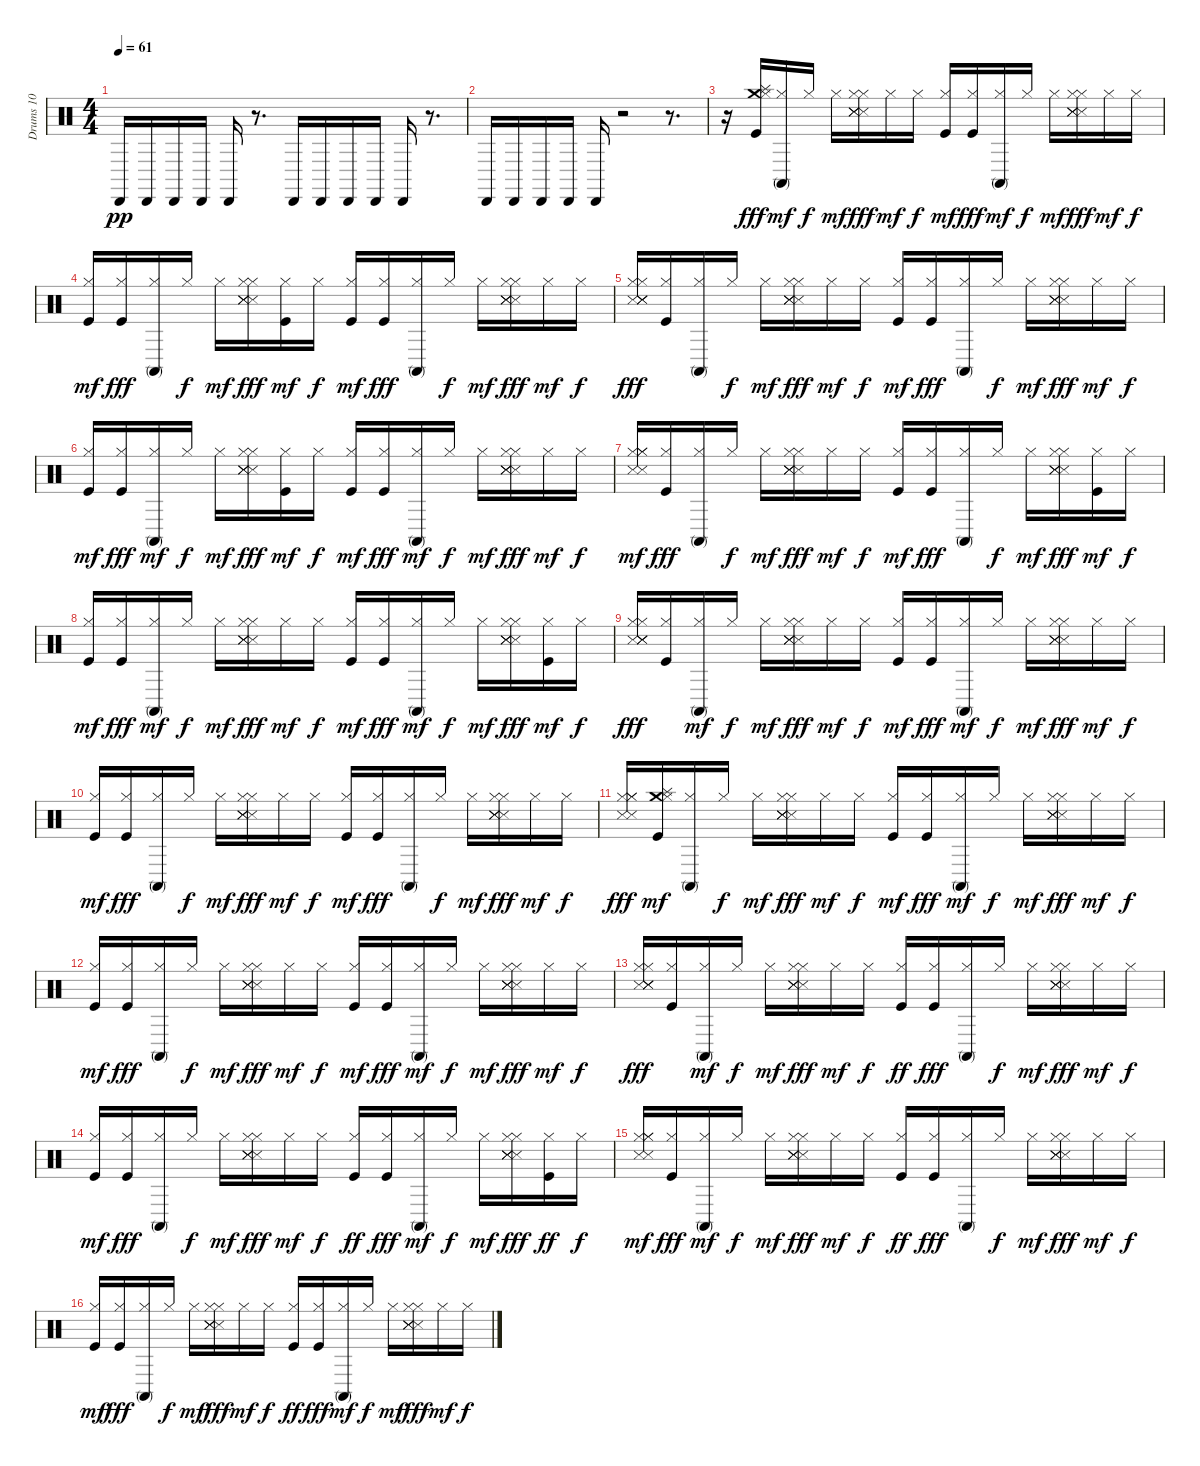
\track ("Drums 10" "Drums 10") {instrument percussion}
\staff {score}
\articulation defaults
\ts (4 4)
\tempo 61
\clef neutral
\ks c "Cabasa (hit)".16{dy pp} "Cabasa (hit)".16 "Cabasa (hit)".16 "Cabasa (hit)".16 "Cabasa (hit)".16
r.8{d} "Cabasa (hit)".16 "Cabasa (hit)".16 "Cabasa (hit)".16 "Cabasa (hit)".16 "Cabasa (hit)".16 r.8{d} |
"Cabasa (hit)".16 "Cabasa (hit)".16 "Cabasa (hit)".16 "Cabasa (hit)".16 "Cabasa (hit)".16 r.2 r.8{d} |
r.16 ("Splash (hit)" "Crash medium (hit)" "Hi-Hat (closed)" "Kick (hit)").16{dy fff volume 12} ("Conga high (mute)" "Hi-Hat (closed)").16{dy mf volume 12} "Hi-Hat (closed)".16{dy f} "Hi-Hat (closed)".16{dy mf} ("Snare (side stick) 3" "Snare (side stick) 3" "Snare (side stick) 3" "Snare (side stick) 3" "Hi-Hat (closed)" "Hi-Hat (closed)").16{dy fff} "Hi-Hat (closed)".16{dy mf} "Hi-Hat (closed)".16{dy f volume 12} ("Kick (hit)" "Hi-Hat (closed)").16{dy mf volume 12} ("Kick (hit)" "Hi-Hat (closed)").16{dy fff volume 12} ("Conga high (mute)" "Hi-Hat (closed)").16{dy mf} "Hi-Hat (closed)".16{dy f} "Hi-Hat (closed)".16{dy mf volume 12} ("Snare (side stick) 3" "Snare (side stick) 3" "Snare (side stick) 3" "Snare (side stick) 3" "Hi-Hat (closed)" "Hi-Hat (closed)").16{dy fff} "Hi-Hat (closed)".16{dy mf} "Hi-Hat (closed)".16{dy f} |
("Kick (hit)" "Hi-Hat (closed)").16{dy mf} ("Hi-Hat (closed)" "Kick (hit)").16{dy fff} ("Hi-Hat (closed)" "Conga high (mute)").16 "Hi-Hat (closed)".16{dy f} "Hi-Hat (closed)".16{dy mf} ("Snare (side stick) 3" "Snare (side stick) 3" "Snare (side stick) 3" "Snare (side stick) 3" "Hi-Hat (closed)" "Hi-Hat (closed)").16{dy fff} ("Kick (hit)" "Hi-Hat (closed)").16{dy mf} "Hi-Hat (closed)".16{dy f} ("Kick (hit)" "Hi-Hat (closed)").16{dy mf} ("Hi-Hat (closed)" "Kick (hit)").16{dy fff} ("Hi-Hat (closed)" "Conga high (mute)").16 "Hi-Hat (closed)".16{dy f} "Hi-Hat (closed)".16{dy mf} ("Snare (side stick) 3" "Snare (side stick) 3" "Snare (side stick) 3" "Snare (side stick) 3" "Hi-Hat (closed)" "Hi-Hat (closed)").16{dy fff} "Hi-Hat (closed)".16{dy mf} "Hi-Hat (closed)".16{dy f} |
("Snare (side stick) 3" "Snare (side stick) 3" "Snare (side stick) 3" "Snare (side stick) 3" "Hi-Hat (closed)" "Hi-Hat (closed)").16{dy fff} ("Hi-Hat (closed)" "Kick (hit)").16 ("Hi-Hat (closed)" "Conga high (mute)").16 "Hi-Hat (closed)".16{dy f} "Hi-Hat (closed)".16{dy mf} ("Snare (side stick) 3" "Snare (side stick) 3" "Snare (side stick) 3" "Snare (side stick) 3" "Hi-Hat (closed)" "Hi-Hat (closed)").16{dy fff} "Hi-Hat (closed)".16{dy mf} "Hi-Hat (closed)".16{dy f} ("Kick (hit)" "Hi-Hat (closed)").16{dy mf} ("Hi-Hat (closed)" "Kick (hit)").16{dy fff} ("Hi-Hat (closed)" "Conga high (mute)").16 "Hi-Hat (closed)".16{dy f} "Hi-Hat (closed)".16{dy mf} ("Snare (side stick) 3" "Snare (side stick) 3" "Snare (side stick) 3" "Snare (side stick) 3" "Hi-Hat (closed)" "Hi-Hat (closed)").16{dy fff} "Hi-Hat (closed)".16{dy mf} "Hi-Hat (closed)".16{dy f} |
("Kick (hit)" "Hi-Hat (closed)").16{dy mf} ("Kick (hit)" "Hi-Hat (closed)").16{dy fff} ("Conga high (mute)" "Hi-Hat (closed)").16{dy mf} "Hi-Hat (closed)".16{dy f} "Hi-Hat (closed)".16{dy mf} ("Snare (side stick) 3" "Snare (side stick) 3" "Snare (side stick) 3" "Snare (side stick) 3" "Hi-Hat (closed)" "Hi-Hat (closed)").16{dy fff} ("Kick (hit)" "Hi-Hat (closed)").16{dy mf} "Hi-Hat (closed)".16{dy f} ("Kick (hit)" "Hi-Hat (closed)").16{dy mf} ("Kick (hit)" "Hi-Hat (closed)").16{dy fff} ("Conga high (mute)" "Hi-Hat (closed)").16{dy mf} "Hi-Hat (closed)".16{dy f} "Hi-Hat (closed)".16{dy mf} ("Snare (side stick) 3" "Snare (side stick) 3" "Snare (side stick) 3" "Snare (side stick) 3" "Hi-Hat (closed)" "Hi-Hat (closed)").16{dy fff} "Hi-Hat (closed)".16{dy mf} "Hi-Hat (closed)".16{dy f} |
("Snare (side stick) 3" "Snare (side stick) 3" "Hi-Hat (closed)" "Hi-Hat (closed)" "Hi-Hat (closed)").16{dy mf} ("Hi-Hat (closed)" "Kick (hit)").16{dy fff} ("Hi-Hat (closed)" "Conga high (mute)").16 "Hi-Hat (closed)".16{dy f} "Hi-Hat (closed)".16{dy mf} ("Snare (side stick) 3" "Snare (side stick) 3" "Snare (side stick) 3" "Snare (side stick) 3" "Hi-Hat (closed)" "Hi-Hat (closed)").16{dy fff} "Hi-Hat (closed)".16{dy mf} "Hi-Hat (closed)".16{dy f} ("Kick (hit)" "Hi-Hat (closed)").16{dy mf} ("Hi-Hat (closed)" "Kick (hit)").16{dy fff} ("Hi-Hat (closed)" "Conga high (mute)").16 "Hi-Hat (closed)".16{dy f} "Hi-Hat (closed)".16{dy mf} ("Snare (side stick) 3" "Snare (side stick) 3" "Snare (side stick) 3" "Snare (side stick) 3" "Hi-Hat (closed)" "Hi-Hat (closed)").16{dy fff} ("Kick (hit)" "Hi-Hat (closed)").16{dy mf} "Hi-Hat (closed)".16{dy f} |
("Kick (hit)" "Hi-Hat (closed)").16{dy mf} ("Kick (hit)" "Hi-Hat (closed)").16{dy fff} ("Conga high (mute)" "Hi-Hat (closed)").16{dy mf} "Hi-Hat (closed)".16{dy f} "Hi-Hat (closed)".16{dy mf} ("Snare (side stick) 3" "Snare (side stick) 3" "Snare (side stick) 3" "Snare (side stick) 3" "Hi-Hat (closed)" "Hi-Hat (closed)").16{dy fff} "Hi-Hat (closed)".16{dy mf} "Hi-Hat (closed)".16{dy f} ("Kick (hit)" "Hi-Hat (closed)").16{dy mf} ("Kick (hit)" "Hi-Hat (closed)").16{dy fff} ("Conga high (mute)" "Hi-Hat (closed)").16{dy mf} "Hi-Hat (closed)".16{dy f} "Hi-Hat (closed)".16{dy mf} ("Snare (side stick) 3" "Snare (side stick) 3" "Snare (side stick) 3" "Snare (side stick) 3" "Hi-Hat (closed)" "Hi-Hat (closed)").16{dy fff} ("Kick (hit)" "Hi-Hat (closed)").16{dy mf} "Hi-Hat (closed)".16{dy f} |
("Snare (side stick) 3" "Snare (side stick) 3" "Snare (side stick) 3" "Snare (side stick) 3" "Hi-Hat (closed)" "Hi-Hat (closed)").16{dy fff} ("Kick (hit)" "Hi-Hat (closed)").16 ("Conga high (mute)" "Hi-Hat (closed)").16{dy mf} "Hi-Hat (closed)".16{dy f} "Hi-Hat (closed)".16{dy mf} ("Snare (side stick) 3" "Snare (side stick) 3" "Snare (side stick) 3" "Snare (side stick) 3" "Hi-Hat (closed)" "Hi-Hat (closed)").16{dy fff} "Hi-Hat (closed)".16{dy mf} "Hi-Hat (closed)".16{dy f} ("Kick (hit)" "Hi-Hat (closed)").16{dy mf} ("Kick (hit)" "Hi-Hat (closed)").16{dy fff} ("Conga high (mute)" "Hi-Hat (closed)").16{dy mf} "Hi-Hat (closed)".16{dy f} "Hi-Hat (closed)".16{dy mf} ("Snare (side stick) 3" "Snare (side stick) 3" "Snare (side stick) 3" "Snare (side stick) 3" "Hi-Hat (closed)" "Hi-Hat (closed)").16{dy fff} "Hi-Hat (closed)".16{dy mf} "Hi-Hat (closed)".16{dy f} |
("Kick (hit)" "Hi-Hat (closed)").16{dy mf} ("Hi-Hat (closed)" "Kick (hit)").16{dy fff} ("Hi-Hat (closed)" "Conga high (mute)").16 "Hi-Hat (closed)".16{dy f} "Hi-Hat (closed)".16{dy mf} ("Snare (side stick) 3" "Snare (side stick) 3" "Snare (side stick) 3" "Snare (side stick) 3" "Hi-Hat (closed)" "Hi-Hat (closed)").16{dy fff} "Hi-Hat (closed)".16{dy mf} "Hi-Hat (closed)".16{dy f} ("Kick (hit)" "Hi-Hat (closed)").16{dy mf} ("Hi-Hat (closed)" "Kick (hit)").16{dy fff} ("Hi-Hat (closed)" "Conga high (mute)").16 "Hi-Hat (closed)".16{dy f} "Hi-Hat (closed)".16{dy mf} ("Snare (side stick) 3" "Snare (side stick) 3" "Snare (side stick) 3" "Snare (side stick) 3" "Hi-Hat (closed)" "Hi-Hat (closed)").16{dy fff} "Hi-Hat (closed)".16{dy mf} "Hi-Hat (closed)".16{dy f} |
("Snare (side stick) 3" "Snare (side stick) 3" "Hi-Hat (closed)" "Hi-Hat (closed)" "Hi-Hat (closed)").16{dy fff} ("Kick (hit)" "Crash medium (hit)" "Splash (hit)" "Hi-Hat (closed)").16{dy mf} ("Conga high (mute)" "Hi-Hat (closed)").16 "Hi-Hat (closed)".16{dy f} "Hi-Hat (closed)".16{dy mf} ("Snare (side stick) 3" "Snare (side stick) 3" "Hi-Hat (closed)" "Hi-Hat (closed)" "Snare (side stick) 3" "Snare (side stick) 3").16{dy fff} "Hi-Hat (closed)".16{dy mf} "Hi-Hat (closed)".16{dy f} ("Kick (hit)" "Hi-Hat (closed)").16{dy mf} ("Kick (hit)" "Hi-Hat (closed)").16{dy fff} ("Conga high (mute)" "Hi-Hat (closed)").16{dy mf} "Hi-Hat (closed)".16{dy f} "Hi-Hat (closed)".16{dy mf} ("Hi-Hat (closed)" "Snare (side stick) 3" "Snare (side stick) 3" "Snare (side stick) 3" "Snare (side stick) 3" "Hi-Hat (closed)").16{dy fff} "Hi-Hat (closed)".16{dy mf} "Hi-Hat (closed)".16{dy f} |
("Kick (hit)" "Hi-Hat (closed)").16{dy mf} ("Kick (hit)" "Hi-Hat (closed)").16{dy fff} ("Hi-Hat (closed)" "Conga high (mute)").16 "Hi-Hat (closed)".16{dy f} "Hi-Hat (closed)".16{dy mf} ("Hi-Hat (closed)" "Snare (side stick) 3" "Snare (side stick) 3" "Snare (side stick) 3" "Snare (side stick) 3" "Hi-Hat (closed)").16{dy fff} "Hi-Hat (closed)".16{dy mf} "Hi-Hat (closed)".16{dy f} ("Kick (hit)" "Hi-Hat (closed)").16{dy mf} ("Hi-Hat (closed)" "Kick (hit)").16{dy fff} ("Conga high (mute)" "Hi-Hat (closed)").16{dy mf} "Hi-Hat (closed)".16{dy f} "Hi-Hat (closed)".16{dy mf} ("Hi-Hat (closed)" "Snare (side stick) 3" "Snare (side stick) 3" "Snare (side stick) 3" "Snare (side stick) 3" "Hi-Hat (closed)").16{dy fff} "Hi-Hat (closed)".16{dy mf} "Hi-Hat (closed)".16{dy f} |
("Hi-Hat (closed)" "Snare (side stick) 3" "Snare (side stick) 3" "Snare (side stick) 3" "Snare (side stick) 3" "Hi-Hat (closed)").16{dy fff} ("Hi-Hat (closed)" "Kick (hit)").16 ("Conga high (mute)" "Hi-Hat (closed)").16{dy mf} "Hi-Hat (closed)".16{dy f} "Hi-Hat (closed)".16{dy mf} ("Snare (side stick) 3" "Snare (side stick) 3" "Snare (side stick) 3" "Snare (side stick) 3" "Hi-Hat (closed)" "Hi-Hat (closed)").16{dy fff} "Hi-Hat (closed)".16{dy mf} "Hi-Hat (closed)".16{dy f} ("Hi-Hat (closed)" "Kick (hit)").16{dy ff} ("Hi-Hat (closed)" "Kick (hit)").16{dy fff} ("Hi-Hat (closed)" "Conga high (mute)").16 "Hi-Hat (closed)".16{dy f} "Hi-Hat (closed)".16{dy mf} ("Hi-Hat (closed)" "Snare (side stick) 3" "Snare (side stick) 3" "Snare (side stick) 3" "Snare (side stick) 3" "Hi-Hat (closed)").16{dy fff} "Hi-Hat (closed)".16{dy mf} "Hi-Hat (closed)".16{dy f} |
("Kick (hit)" "Hi-Hat (closed)").16{dy mf} ("Kick (hit)" "Hi-Hat (closed)").16{dy fff} ("Hi-Hat (closed)" "Conga high (mute)").16 "Hi-Hat (closed)".16{dy f} "Hi-Hat (closed)".16{dy mf} ("Hi-Hat (closed)" "Snare (side stick) 3" "Snare (side stick) 3" "Snare (side stick) 3" "Snare (side stick) 3" "Hi-Hat (closed)").16{dy fff} "Hi-Hat (closed)".16{dy mf} "Hi-Hat (closed)".16{dy f} ("Hi-Hat (closed)" "Kick (hit)").16{dy ff} ("Kick (hit)" "Hi-Hat (closed)").16{dy fff} ("Conga high (mute)" "Hi-Hat (closed)").16{dy mf} "Hi-Hat (closed)".16{dy f volume 12} "Hi-Hat (closed)".16{dy mf} ("Snare (side stick) 3" "Hi-Hat (closed)" "Snare (side stick) 3" "Snare (side stick) 3" "Snare (side stick) 3" "Hi-Hat (closed)").16{dy fff volume 12} ("Hi-Hat (closed)" "Kick (hit)").16{dy ff volume 12} "Hi-Hat (closed)".16{dy f volume 12} |
("Hi-Hat (closed)" "Snare (side stick) 3" "Snare (side stick) 3" "Hi-Hat (closed)" "Hi-Hat (closed)").16{dy mf volume 13} ("Hi-Hat (closed)" "Kick (hit)").16{dy fff} ("Conga high (mute)" "Hi-Hat (closed)").16{dy mf volume 13} "Hi-Hat (closed)".16{dy f} "Hi-Hat (closed)".16{dy mf volume 13} ("Hi-Hat (closed)" "Hi-Hat (closed)" "Snare (side stick) 3" "Snare (side stick) 3" "Snare (side stick) 3" "Snare (side stick) 3").16{dy fff} "Hi-Hat (closed)".16{dy mf volume 13} "Hi-Hat (closed)".16{dy f volume 12} ("Hi-Hat (closed)" "Kick (hit)").16{dy ff volume 12} ("Hi-Hat (closed)" "Kick (hit)").16{dy fff} ("Hi-Hat (closed)" "Conga high (mute)").16 "Hi-Hat (closed)".16{dy f} "Hi-Hat (closed)".16{dy mf} ("Snare (side stick) 3" "Snare (side stick) 3" "Hi-Hat (closed)" "Snare (side stick) 3" "Snare (side stick) 3" "Hi-Hat (closed)").16{dy fff} "Hi-Hat (closed)".16{dy mf} "Hi-Hat (closed)".16{dy f} |
("Kick (hit)" "Hi-Hat (closed)").16{dy mf} ("Kick (hit)" "Hi-Hat (closed)").16{dy fff} ("Hi-Hat (closed)" "Conga high (mute)").16 "Hi-Hat (closed)".16{dy f} "Hi-Hat (closed)".16{dy mf} ("Snare (side stick) 3" "Snare (side stick) 3" "Snare (side stick) 3" "Snare (side stick) 3" "Hi-Hat (closed)" "Hi-Hat (closed)").16{dy fff} "Hi-Hat (closed)".16{dy mf} "Hi-Hat (closed)".16{dy f} ("Hi-Hat (closed)" "Kick (hit)").16{dy ff} ("Kick (hit)" "Hi-Hat (closed)").16{dy fff} ("Conga high (mute)" "Hi-Hat (closed)").16{dy mf} "Hi-Hat (closed)".16{dy f} "Hi-Hat (closed)".16{dy mf} ("Hi-Hat (closed)" "Snare (side stick) 3" "Snare (side stick) 3" "Snare (side stick) 3" "Snare (side stick) 3" "Hi-Hat (closed)").16{dy fff} "Hi-Hat (closed)".16{dy mf} "Hi-Hat (closed)".16{dy f}
